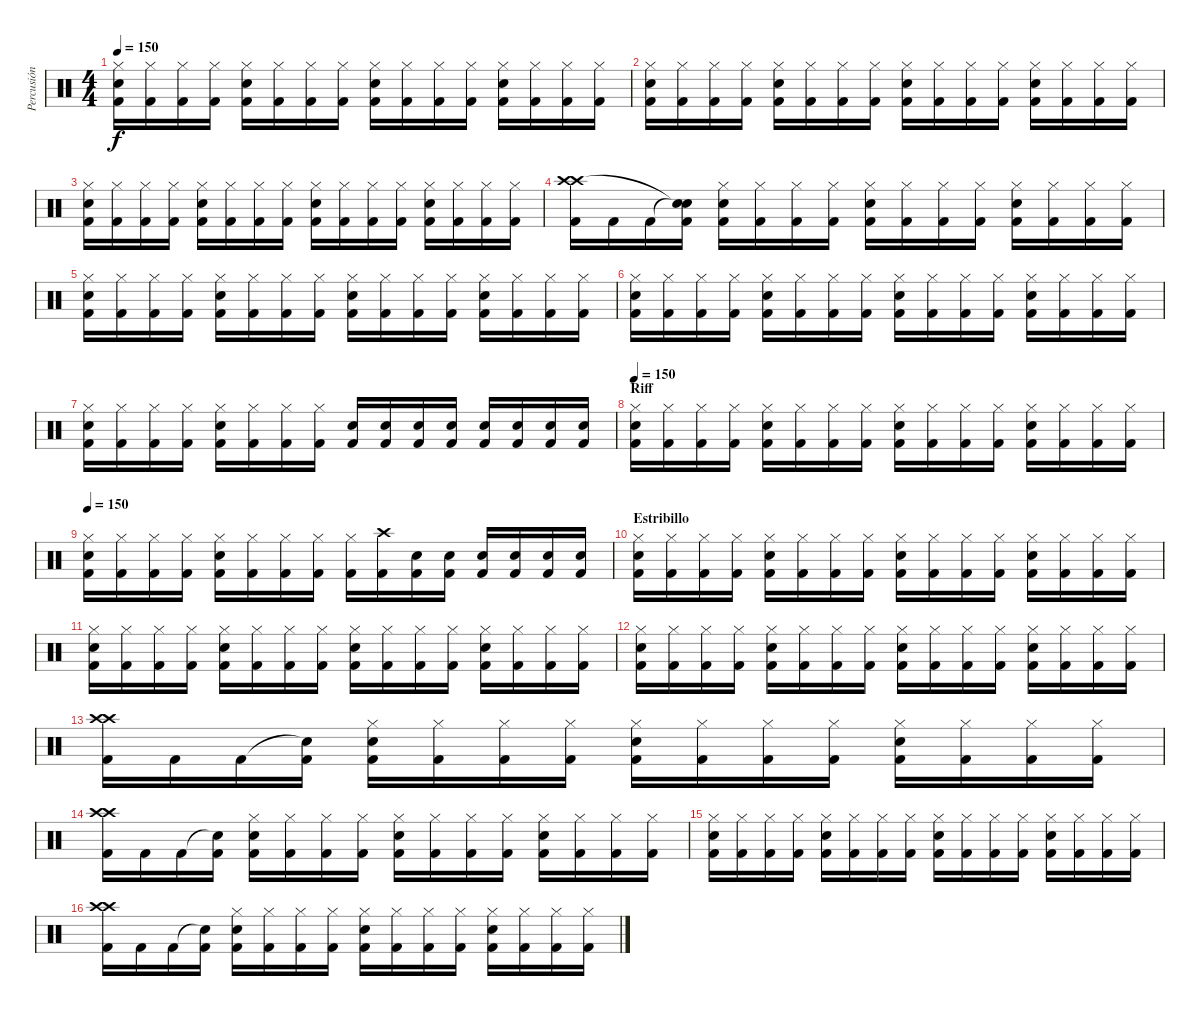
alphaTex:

\track ("Percusión" "Percusión") {instrument percussion}
\staff {score}
\articulation defaults
\ts (4 4)
\tempo 150
\clef neutral
\ks c
("Hi-Hat (closed)" "Electric Snare (hit)" "Kick (hit) 2").16{dy f} ("Hi-Hat (closed)" "Kick (hit) 2").16 ("Hi-Hat (closed)" "Kick (hit) 2").16 ("Hi-Hat (closed)" "Kick (hit) 2").16 ("Hi-Hat (closed)" "Electric Snare (hit)" "Kick (hit) 2").16 ("Hi-Hat (closed)" "Kick (hit) 2").16 ("Hi-Hat (closed)" "Kick (hit) 2").16 ("Hi-Hat (closed)" "Kick (hit) 2").16 ("Hi-Hat (closed)" "Electric Snare (hit)" "Kick (hit) 2").16 ("Hi-Hat (closed)" "Kick (hit) 2").16 ("Hi-Hat (closed)" "Kick (hit) 2").16 ("Hi-Hat (closed)" "Kick (hit) 2").16 ("Hi-Hat (closed)" "Electric Snare (hit)" "Kick (hit) 2").16 ("Hi-Hat (closed)" "Kick (hit) 2").16 ("Hi-Hat (closed)" "Kick (hit) 2").16 ("Hi-Hat (closed)" "Kick (hit) 2").16 |
("Hi-Hat (closed)" "Electric Snare (hit)" "Kick (hit) 2").16 ("Hi-Hat (closed)" "Kick (hit) 2").16 ("Hi-Hat (closed)" "Kick (hit) 2").16 ("Hi-Hat (closed)" "Kick (hit) 2").16 ("Hi-Hat (closed)" "Electric Snare (hit)" "Kick (hit) 2").16 ("Hi-Hat (closed)" "Kick (hit) 2").16 ("Hi-Hat (closed)" "Kick (hit) 2").16 ("Hi-Hat (closed)" "Kick (hit) 2").16 ("Hi-Hat (closed)" "Electric Snare (hit)" "Kick (hit) 2").16 ("Hi-Hat (closed)" "Kick (hit) 2").16 ("Hi-Hat (closed)" "Kick (hit) 2").16 ("Hi-Hat (closed)" "Kick (hit) 2").16 ("Hi-Hat (closed)" "Electric Snare (hit)" "Kick (hit) 2").16 ("Hi-Hat (closed)" "Kick (hit) 2").16 ("Hi-Hat (closed)" "Kick (hit) 2").16 ("Hi-Hat (closed)" "Kick (hit) 2").16 |
("Hi-Hat (closed)" "Electric Snare (hit)" "Kick (hit) 2").16 ("Hi-Hat (closed)" "Kick (hit) 2").16 ("Hi-Hat (closed)" "Kick (hit) 2").16 ("Hi-Hat (closed)" "Kick (hit) 2").16 ("Hi-Hat (closed)" "Electric Snare (hit)" "Kick (hit) 2").16 ("Hi-Hat (closed)" "Kick (hit) 2").16 ("Hi-Hat (closed)" "Kick (hit) 2").16 ("Hi-Hat (closed)" "Kick (hit) 2").16 ("Hi-Hat (closed)" "Electric Snare (hit)" "Kick (hit) 2").16 ("Hi-Hat (closed)" "Kick (hit) 2").16 ("Hi-Hat (closed)" "Kick (hit) 2").16 ("Hi-Hat (closed)" "Kick (hit) 2").16 ("Hi-Hat (closed)" "Electric Snare (hit)" "Kick (hit) 2").16 ("Hi-Hat (closed)" "Kick (hit) 2").16 ("Hi-Hat (closed)" "Kick (hit) 2").16 ("Hi-Hat (closed)" "Kick (hit) 2").16 |
("Crash high (hit)" "Crash high (hit)" "Kick (hit) 2").16 "Kick (hit) 2".16 "Kick (hit) 2".16 ("Snare (hit)"{t} "Snare (hit)"{t} "Kick (hit) 2").16 ("Hi-Hat (closed)" "Electric Snare (hit)" "Kick (hit) 2").16 ("Hi-Hat (closed)" "Kick (hit) 2").16 ("Hi-Hat (closed)" "Kick (hit) 2").16 ("Hi-Hat (closed)" "Kick (hit) 2").16 ("Hi-Hat (closed)" "Electric Snare (hit)" "Kick (hit) 2").16 ("Hi-Hat (closed)" "Kick (hit) 2").16 ("Hi-Hat (closed)" "Kick (hit) 2").16 ("Hi-Hat (closed)" "Kick (hit) 2").16 ("Hi-Hat (closed)" "Electric Snare (hit)" "Kick (hit) 2").16 ("Hi-Hat (closed)" "Kick (hit) 2").16 ("Hi-Hat (closed)" "Kick (hit) 2").16 ("Hi-Hat (closed)" "Kick (hit) 2").16 |
("Hi-Hat (closed)" "Electric Snare (hit)" "Kick (hit) 2").16 ("Hi-Hat (closed)" "Kick (hit) 2").16 ("Hi-Hat (closed)" "Kick (hit) 2").16 ("Hi-Hat (closed)" "Kick (hit) 2").16 ("Hi-Hat (closed)" "Electric Snare (hit)" "Kick (hit) 2").16 ("Hi-Hat (closed)" "Kick (hit) 2").16 ("Hi-Hat (closed)" "Kick (hit) 2").16 ("Hi-Hat (closed)" "Kick (hit) 2").16 ("Hi-Hat (closed)" "Electric Snare (hit)" "Kick (hit) 2").16 ("Hi-Hat (closed)" "Kick (hit) 2").16 ("Hi-Hat (closed)" "Kick (hit) 2").16 ("Hi-Hat (closed)" "Kick (hit) 2").16 ("Hi-Hat (closed)" "Electric Snare (hit)" "Kick (hit) 2").16 ("Hi-Hat (closed)" "Kick (hit) 2").16 ("Hi-Hat (closed)" "Kick (hit) 2").16 ("Hi-Hat (closed)" "Kick (hit) 2").16 |
("Hi-Hat (closed)" "Electric Snare (hit)" "Kick (hit) 2").16 ("Hi-Hat (closed)" "Kick (hit) 2").16 ("Hi-Hat (closed)" "Kick (hit) 2").16 ("Hi-Hat (closed)" "Kick (hit) 2").16 ("Hi-Hat (closed)" "Electric Snare (hit)" "Kick (hit) 2").16 ("Hi-Hat (closed)" "Kick (hit) 2").16 ("Hi-Hat (closed)" "Kick (hit) 2").16 ("Hi-Hat (closed)" "Kick (hit) 2").16 ("Hi-Hat (closed)" "Electric Snare (hit)" "Kick (hit) 2").16 ("Hi-Hat (closed)" "Kick (hit) 2").16 ("Hi-Hat (closed)" "Kick (hit) 2").16 ("Hi-Hat (closed)" "Kick (hit) 2").16 ("Hi-Hat (closed)" "Electric Snare (hit)" "Kick (hit) 2").16 ("Hi-Hat (closed)" "Kick (hit) 2").16 ("Hi-Hat (closed)" "Kick (hit) 2").16 ("Hi-Hat (closed)" "Kick (hit) 2").16 |
("Hi-Hat (closed)" "Electric Snare (hit)" "Kick (hit) 2").16 ("Hi-Hat (closed)" "Kick (hit) 2").16 ("Hi-Hat (closed)" "Kick (hit) 2").16 ("Hi-Hat (closed)" "Kick (hit) 2").16 ("Hi-Hat (closed)" "Electric Snare (hit)" "Kick (hit) 2").16 ("Hi-Hat (closed)" "Kick (hit) 2").16 ("Hi-Hat (closed)" "Kick (hit) 2").16 ("Hi-Hat (closed)" "Kick (hit) 2").16 ("Electric Snare (hit)" "Kick (hit) 2").16 ("Electric Snare (hit)" "Kick (hit) 2").16 ("Electric Snare (hit)" "Kick (hit) 2").16 ("Electric Snare (hit)" "Kick (hit) 2").16 ("Electric Snare (hit)" "Kick (hit) 2").16 ("Electric Snare (hit)" "Kick (hit) 2").16 ("Electric Snare (hit)" "Kick (hit) 2").16 ("Electric Snare (hit)" "Kick (hit) 2").16 |
\section ("" "Riff")
\tempo 150
("Hi-Hat (closed)" "Electric Snare (hit)" "Kick (hit) 2").16 ("Hi-Hat (closed)" "Kick (hit) 2").16 ("Hi-Hat (closed)" "Kick (hit) 2").16 ("Hi-Hat (closed)" "Kick (hit) 2").16 ("Hi-Hat (closed)" "Electric Snare (hit)" "Kick (hit) 2").16 ("Hi-Hat (closed)" "Kick (hit) 2").16 ("Hi-Hat (closed)" "Kick (hit) 2").16 ("Hi-Hat (closed)" "Kick (hit) 2").16 ("Hi-Hat (closed)" "Electric Snare (hit)" "Kick (hit) 2").16 ("Hi-Hat (closed)" "Kick (hit) 2").16 ("Hi-Hat (closed)" "Kick (hit) 2").16 ("Hi-Hat (closed)" "Kick (hit) 2").16 ("Hi-Hat (closed)" "Electric Snare (hit)" "Kick (hit) 2").16 ("Hi-Hat (closed)" "Kick (hit) 2").16 ("Hi-Hat (closed)" "Kick (hit) 2").16 ("Hi-Hat (closed)" "Kick (hit) 2").16 |
\tempo 150
("Hi-Hat (closed)" "Electric Snare (hit)" "Kick (hit) 2").16 ("Hi-Hat (closed)" "Kick (hit) 2").16 ("Hi-Hat (closed)" "Kick (hit) 2").16 ("Hi-Hat (closed)" "Kick (hit) 2").16 ("Hi-Hat (closed)" "Electric Snare (hit)" "Kick (hit) 2").16 ("Hi-Hat (closed)" "Kick (hit) 2").16 ("Hi-Hat (closed)" "Kick (hit) 2").16 ("Hi-Hat (closed)" "Kick (hit) 2").16 ("Hi-Hat (closed)" "Kick (hit) 2").16 ("Crash high (hit)" "Kick (hit) 2").16 ("Electric Snare (hit)" "Kick (hit) 2").16 ("Electric Snare (hit)" "Kick (hit) 2").16 ("Electric Snare (hit)" "Kick (hit) 2").16 ("Electric Snare (hit)" "Kick (hit) 2").16 ("Electric Snare (hit)" "Kick (hit) 2").16 ("Electric Snare (hit)" "Kick (hit) 2").16 |
\section ("" "Estribillo")
("Hi-Hat (closed)" "Electric Snare (hit)" "Kick (hit) 2").16 ("Hi-Hat (closed)" "Kick (hit) 2").16 ("Hi-Hat (closed)" "Kick (hit) 2").16 ("Hi-Hat (closed)" "Kick (hit) 2").16 ("Hi-Hat (closed)" "Electric Snare (hit)" "Kick (hit) 2").16 ("Hi-Hat (closed)" "Kick (hit) 2").16 ("Hi-Hat (closed)" "Kick (hit) 2").16 ("Hi-Hat (closed)" "Kick (hit) 2").16 ("Hi-Hat (closed)" "Electric Snare (hit)" "Kick (hit) 2").16 ("Hi-Hat (closed)" "Kick (hit) 2").16 ("Hi-Hat (closed)" "Kick (hit) 2").16 ("Hi-Hat (closed)" "Kick (hit) 2").16 ("Hi-Hat (closed)" "Electric Snare (hit)" "Kick (hit) 2").16 ("Hi-Hat (closed)" "Kick (hit) 2").16 ("Hi-Hat (closed)" "Kick (hit) 2").16 ("Hi-Hat (closed)" "Kick (hit) 2").16 |
("Hi-Hat (closed)" "Electric Snare (hit)" "Kick (hit) 2").16 ("Hi-Hat (closed)" "Kick (hit) 2").16 ("Hi-Hat (closed)" "Kick (hit) 2").16 ("Hi-Hat (closed)" "Kick (hit) 2").16 ("Hi-Hat (closed)" "Electric Snare (hit)" "Kick (hit) 2").16 ("Hi-Hat (closed)" "Kick (hit) 2").16 ("Hi-Hat (closed)" "Kick (hit) 2").16 ("Hi-Hat (closed)" "Kick (hit) 2").16 ("Hi-Hat (closed)" "Electric Snare (hit)" "Kick (hit) 2").16 ("Hi-Hat (closed)" "Kick (hit) 2").16 ("Hi-Hat (closed)" "Kick (hit) 2").16 ("Hi-Hat (closed)" "Kick (hit) 2").16 ("Hi-Hat (closed)" "Electric Snare (hit)" "Kick (hit) 2").16 ("Hi-Hat (closed)" "Kick (hit) 2").16 ("Hi-Hat (closed)" "Kick (hit) 2").16 ("Hi-Hat (closed)" "Kick (hit) 2").16 |
("Hi-Hat (closed)" "Electric Snare (hit)" "Kick (hit) 2").16 ("Hi-Hat (closed)" "Kick (hit) 2").16 ("Hi-Hat (closed)" "Kick (hit) 2").16 ("Hi-Hat (closed)" "Kick (hit) 2").16 ("Hi-Hat (closed)" "Electric Snare (hit)" "Kick (hit) 2").16 ("Hi-Hat (closed)" "Kick (hit) 2").16 ("Hi-Hat (closed)" "Kick (hit) 2").16 ("Hi-Hat (closed)" "Kick (hit) 2").16 ("Hi-Hat (closed)" "Electric Snare (hit)" "Kick (hit) 2").16 ("Hi-Hat (closed)" "Kick (hit) 2").16 ("Hi-Hat (closed)" "Kick (hit) 2").16 ("Hi-Hat (closed)" "Kick (hit) 2").16 ("Hi-Hat (closed)" "Electric Snare (hit)" "Kick (hit) 2").16 ("Hi-Hat (closed)" "Kick (hit) 2").16 ("Hi-Hat (closed)" "Kick (hit) 2").16 ("Hi-Hat (closed)" "Kick (hit) 2").16 |
("Crash high (hit)" "Crash high (hit)" "Kick (hit) 2").16 "Kick (hit) 2".16 "Kick (hit) 2".16 ("Snare (hit)"{t} "Kick (hit) 2").16 ("Hi-Hat (closed)" "Electric Snare (hit)" "Kick (hit) 2").16 ("Hi-Hat (closed)" "Kick (hit) 2").16 ("Hi-Hat (closed)" "Kick (hit) 2").16 ("Hi-Hat (closed)" "Kick (hit) 2").16 ("Hi-Hat (closed)" "Electric Snare (hit)" "Kick (hit) 2").16 ("Hi-Hat (closed)" "Kick (hit) 2").16 ("Hi-Hat (closed)" "Kick (hit) 2").16 ("Hi-Hat (closed)" "Kick (hit) 2").16 ("Hi-Hat (closed)" "Electric Snare (hit)" "Kick (hit) 2").16 ("Hi-Hat (closed)" "Kick (hit) 2").16 ("Hi-Hat (closed)" "Kick (hit) 2").16 ("Hi-Hat (closed)" "Kick (hit) 2").16 |
("Crash high (hit)" "Crash high (hit)" "Kick (hit) 2").16 "Kick (hit) 2".16 "Kick (hit) 2".16 ("Snare (hit)"{t} "Kick (hit) 2").16 ("Hi-Hat (closed)" "Electric Snare (hit)" "Kick (hit) 2").16 ("Hi-Hat (closed)" "Kick (hit) 2").16 ("Hi-Hat (closed)" "Kick (hit) 2").16 ("Hi-Hat (closed)" "Kick (hit) 2").16 ("Hi-Hat (closed)" "Electric Snare (hit)" "Kick (hit) 2").16 ("Hi-Hat (closed)" "Kick (hit) 2").16 ("Hi-Hat (closed)" "Kick (hit) 2").16 ("Hi-Hat (closed)" "Kick (hit) 2").16 ("Hi-Hat (closed)" "Electric Snare (hit)" "Kick (hit) 2").16 ("Hi-Hat (closed)" "Kick (hit) 2").16 ("Hi-Hat (closed)" "Kick (hit) 2").16 ("Hi-Hat (closed)" "Kick (hit) 2").16 |
("Hi-Hat (closed)" "Electric Snare (hit)" "Kick (hit) 2").16 ("Hi-Hat (closed)" "Kick (hit) 2").16 ("Hi-Hat (closed)" "Kick (hit) 2").16 ("Hi-Hat (closed)" "Kick (hit) 2").16 ("Hi-Hat (closed)" "Electric Snare (hit)" "Kick (hit) 2").16 ("Hi-Hat (closed)" "Kick (hit) 2").16 ("Hi-Hat (closed)" "Kick (hit) 2").16 ("Hi-Hat (closed)" "Kick (hit) 2").16 ("Hi-Hat (closed)" "Electric Snare (hit)" "Kick (hit) 2").16 ("Hi-Hat (closed)" "Kick (hit) 2").16 ("Hi-Hat (closed)" "Kick (hit) 2").16 ("Hi-Hat (closed)" "Kick (hit) 2").16 ("Hi-Hat (closed)" "Electric Snare (hit)" "Kick (hit) 2").16 ("Hi-Hat (closed)" "Kick (hit) 2").16 ("Hi-Hat (closed)" "Kick (hit) 2").16 ("Hi-Hat (closed)" "Kick (hit) 2").16 |
("Crash high (hit)" "Crash high (hit)" "Kick (hit) 2").16 "Kick (hit) 2".16 "Kick (hit) 2".16 ("Snare (hit)"{t} "Kick (hit) 2").16 ("Hi-Hat (closed)" "Electric Snare (hit)" "Kick (hit) 2").16 ("Hi-Hat (closed)" "Kick (hit) 2").16 ("Hi-Hat (closed)" "Kick (hit) 2").16 ("Hi-Hat (closed)" "Kick (hit) 2").16 ("Hi-Hat (closed)" "Electric Snare (hit)" "Kick (hit) 2").16 ("Hi-Hat (closed)" "Kick (hit) 2").16 ("Hi-Hat (closed)" "Kick (hit) 2").16 ("Hi-Hat (closed)" "Kick (hit) 2").16 ("Hi-Hat (closed)" "Electric Snare (hit)" "Kick (hit) 2").16 ("Hi-Hat (closed)" "Kick (hit) 2").16 ("Hi-Hat (closed)" "Kick (hit) 2").16 ("Hi-Hat (closed)" "Kick (hit) 2").16
